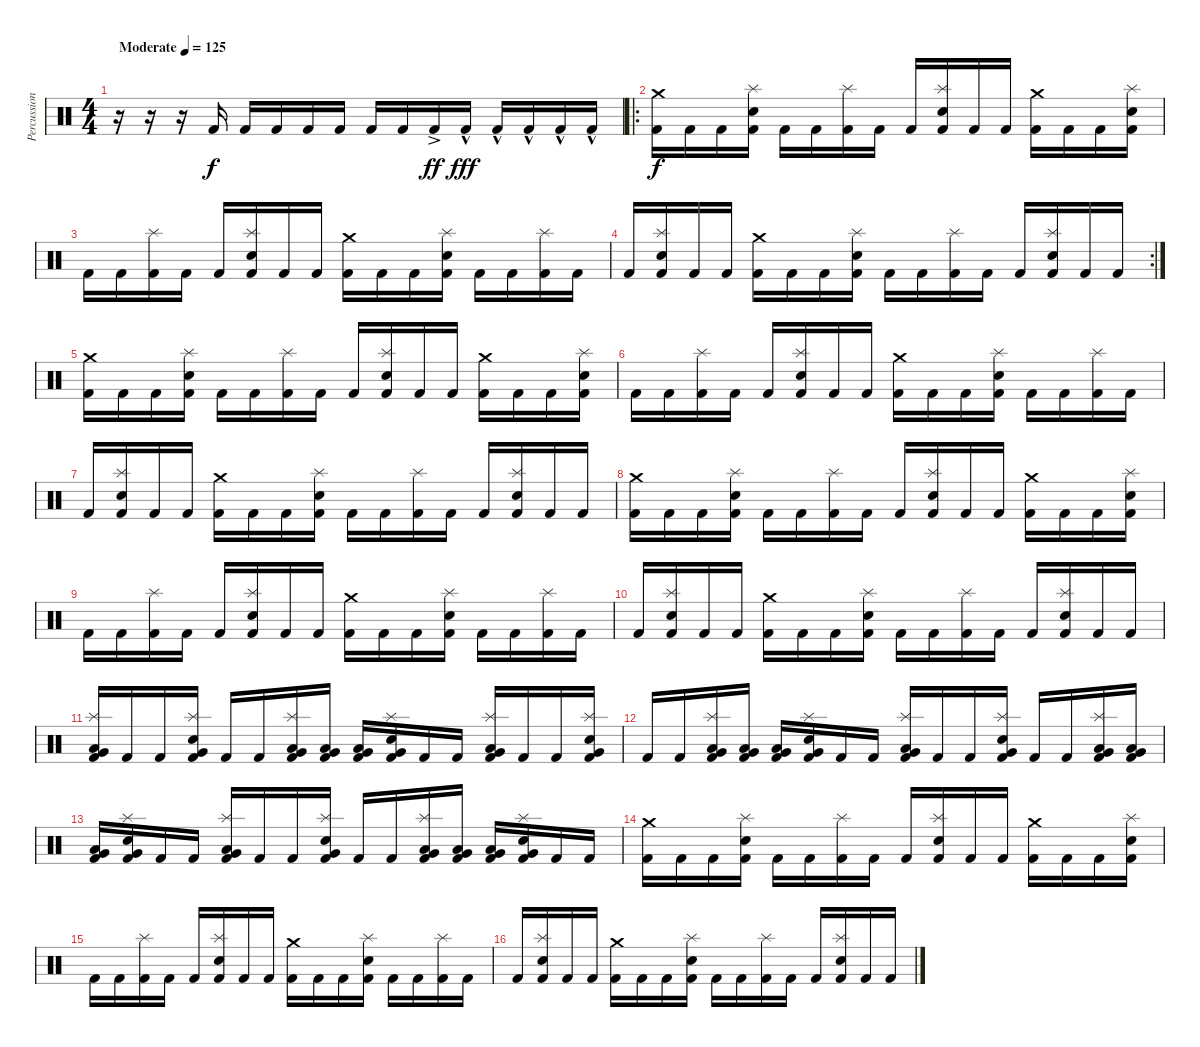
\track ("Percussion" "Percussion") {instrument percussion}
\staff {score}
\articulation defaults
\ts (4 4)
\tempo (125 "Moderate")
\clef neutral
\ks c
r.16{dy f} r.16 r.16 "Kick (hit) 2".16{volume 9} "Kick (hit) 2".16{volume 10} "Kick (hit) 2".16{volume 11} "Kick (hit) 2".16{volume 12} "Kick (hit) 2".16{volume 13} "Kick (hit) 2".16{volume 15} "Kick (hit) 2".16 "Kick (hit) 2"{ac}.16{dy ff} "Kick (hit) 2"{hac}.16{dy fff} "Kick (hit) 2"{hac}.16 "Kick (hit) 2"{hac}.16 "Kick (hit) 2"{hac}.16 "Kick (hit) 2"{hac}.16 |
\ro
("Crash medium (hit)" "Kick (hit) 2").16{dy f} "Kick (hit) 2".16 "Kick (hit) 2".16 ("Splash (hit)" "Electric Snare (hit)" "Kick (hit) 2").16 "Kick (hit) 2".16 "Kick (hit) 2".16 ("Splash (hit)" "Kick (hit) 2").16 "Kick (hit) 2".16 "Kick (hit) 2".16 ("Splash (hit)" "Electric Snare (hit)" "Kick (hit) 2").16 "Kick (hit) 2".16 "Kick (hit) 2".16 ("Crash medium (hit)" "Kick (hit) 2").16 "Kick (hit) 2".16 "Kick (hit) 2".16 ("Splash (hit)" "Electric Snare (hit)" "Kick (hit) 2").16 |
"Kick (hit) 2".16 "Kick (hit) 2".16 ("Splash (hit)" "Kick (hit) 2").16 "Kick (hit) 2".16 "Kick (hit) 2".16 ("Splash (hit)" "Electric Snare (hit)" "Kick (hit) 2").16 "Kick (hit) 2".16 "Kick (hit) 2".16 ("Crash medium (hit)" "Kick (hit) 2").16 "Kick (hit) 2".16 "Kick (hit) 2".16 ("Splash (hit)" "Electric Snare (hit)" "Kick (hit) 2").16 "Kick (hit) 2".16 "Kick (hit) 2".16 ("Splash (hit)" "Kick (hit) 2").16 "Kick (hit) 2".16 |
\rc 2 "Kick (hit) 2".16
("Splash (hit)" "Electric Snare (hit)" "Kick (hit) 2").16 "Kick (hit) 2".16 "Kick (hit) 2".16 ("Crash medium (hit)" "Kick (hit) 2").16 "Kick (hit) 2".16 "Kick (hit) 2".16 ("Splash (hit)" "Electric Snare (hit)" "Kick (hit) 2").16 "Kick (hit) 2".16 "Kick (hit) 2".16 ("Splash (hit)" "Kick (hit) 2").16 "Kick (hit) 2".16 "Kick (hit) 2".16 ("Splash (hit)" "Electric Snare (hit)" "Kick (hit) 2").16 "Kick (hit) 2".16 "Kick (hit) 2".16 |
("Crash medium (hit)" "Kick (hit) 2").16 "Kick (hit) 2".16 "Kick (hit) 2".16 ("Splash (hit)" "Electric Snare (hit)" "Kick (hit) 2").16 "Kick (hit) 2".16 "Kick (hit) 2".16 ("Splash (hit)" "Kick (hit) 2").16 "Kick (hit) 2".16 "Kick (hit) 2".16 ("Splash (hit)" "Electric Snare (hit)" "Kick (hit) 2").16 "Kick (hit) 2".16 "Kick (hit) 2".16 ("Crash medium (hit)" "Kick (hit) 2").16 "Kick (hit) 2".16 "Kick (hit) 2".16 ("Splash (hit)" "Electric Snare (hit)" "Kick (hit) 2").16 |
"Kick (hit) 2".16 "Kick (hit) 2".16 ("Splash (hit)" "Kick (hit) 2").16 "Kick (hit) 2".16 "Kick (hit) 2".16 ("Splash (hit)" "Electric Snare (hit)" "Kick (hit) 2").16 "Kick (hit) 2".16 "Kick (hit) 2".16 ("Crash medium (hit)" "Kick (hit) 2").16 "Kick (hit) 2".16 "Kick (hit) 2".16 ("Splash (hit)" "Electric Snare (hit)" "Kick (hit) 2").16 "Kick (hit) 2".16 "Kick (hit) 2".16 ("Splash (hit)" "Kick (hit) 2").16 "Kick (hit) 2".16 |
"Kick (hit) 2".16 ("Splash (hit)" "Electric Snare (hit)" "Kick (hit) 2").16 "Kick (hit) 2".16 "Kick (hit) 2".16 ("Crash medium (hit)" "Kick (hit) 2").16 "Kick (hit) 2".16 "Kick (hit) 2".16 ("Splash (hit)" "Electric Snare (hit)" "Kick (hit) 2").16 "Kick (hit) 2".16 "Kick (hit) 2".16 ("Splash (hit)" "Kick (hit) 2").16 "Kick (hit) 2".16 "Kick (hit) 2".16 ("Splash (hit)" "Electric Snare (hit)" "Kick (hit) 2").16 "Kick (hit) 2".16 "Kick (hit) 2".16 |
("Crash medium (hit)" "Kick (hit) 2").16 "Kick (hit) 2".16 "Kick (hit) 2".16 ("Splash (hit)" "Electric Snare (hit)" "Kick (hit) 2").16 "Kick (hit) 2".16 "Kick (hit) 2".16 ("Splash (hit)" "Kick (hit) 2").16 "Kick (hit) 2".16 "Kick (hit) 2".16 ("Splash (hit)" "Electric Snare (hit)" "Kick (hit) 2").16 "Kick (hit) 2".16 "Kick (hit) 2".16 ("Crash medium (hit)" "Kick (hit) 2").16 "Kick (hit) 2".16 "Kick (hit) 2".16 ("Splash (hit)" "Electric Snare (hit)" "Kick (hit) 2").16 |
"Kick (hit) 2".16 "Kick (hit) 2".16 ("Splash (hit)" "Kick (hit) 2").16 "Kick (hit) 2".16 "Kick (hit) 2".16 ("Splash (hit)" "Electric Snare (hit)" "Kick (hit) 2").16 "Kick (hit) 2".16 "Kick (hit) 2".16 ("Crash medium (hit)" "Kick (hit) 2").16 "Kick (hit) 2".16 "Kick (hit) 2".16 ("Splash (hit)" "Electric Snare (hit)" "Kick (hit) 2").16 "Kick (hit) 2".16 "Kick (hit) 2".16 ("Splash (hit)" "Kick (hit) 2").16 "Kick (hit) 2".16 |
"Kick (hit) 2".16 ("Splash (hit)" "Electric Snare (hit)" "Kick (hit) 2").16 "Kick (hit) 2".16 "Kick (hit) 2".16 ("Crash medium (hit)" "Kick (hit) 2").16 "Kick (hit) 2".16 "Kick (hit) 2".16 ("Splash (hit)" "Electric Snare (hit)" "Kick (hit) 2").16 "Kick (hit) 2".16 "Kick (hit) 2".16 ("Splash (hit)" "Kick (hit) 2").16 "Kick (hit) 2".16 "Kick (hit) 2".16 ("Splash (hit)" "Electric Snare (hit)" "Kick (hit) 2").16 "Kick (hit) 2".16 "Kick (hit) 2".16 |
("Splash (hit)" "Low Tom (hit)" "Very Low Tom (hit)" "Kick (hit) 2").16 "Kick (hit) 2".16 "Kick (hit) 2".16 ("Splash (hit)" "Electric Snare (hit)" "Very Low Tom (hit)" "Kick (hit) 2").16 "Kick (hit) 2".16 "Kick (hit) 2".16 ("Splash (hit)" "Low Tom (hit)" "Very Low Tom (hit)" "Kick (hit) 2").16 ("Low Tom (hit)" "Very Low Tom (hit)" "Kick (hit) 2").16 ("Low Tom (hit)" "Very Low Tom (hit)" "Kick (hit) 2").16 ("Splash (hit)" "Electric Snare (hit)" "Very Low Tom (hit)" "Kick (hit) 2").16 "Kick (hit) 2".16 "Kick (hit) 2".16 ("Splash (hit)" "Low Tom (hit)" "Very Low Tom (hit)" "Kick (hit) 2").16 "Kick (hit) 2".16 "Kick (hit) 2".16 ("Splash (hit)" "Electric Snare (hit)" "Very Low Tom (hit)" "Kick (hit) 2").16 |
"Kick (hit) 2".16 "Kick (hit) 2".16 ("Splash (hit)" "Low Tom (hit)" "Very Low Tom (hit)" "Kick (hit) 2").16 ("Low Tom (hit)" "Very Low Tom (hit)" "Kick (hit) 2").16 ("Low Tom (hit)" "Very Low Tom (hit)" "Kick (hit) 2").16 ("Splash (hit)" "Electric Snare (hit)" "Very Low Tom (hit)" "Kick (hit) 2").16 "Kick (hit) 2".16 "Kick (hit) 2".16 ("Splash (hit)" "Low Tom (hit)" "Very Low Tom (hit)" "Kick (hit) 2").16 "Kick (hit) 2".16 "Kick (hit) 2".16 ("Splash (hit)" "Electric Snare (hit)" "Very Low Tom (hit)" "Kick (hit) 2").16 "Kick (hit) 2".16 "Kick (hit) 2".16 ("Splash (hit)" "Low Tom (hit)" "Very Low Tom (hit)" "Kick (hit) 2").16 ("Low Tom (hit)" "Very Low Tom (hit)" "Kick (hit) 2").16 |
("Low Tom (hit)" "Very Low Tom (hit)" "Kick (hit) 2").16 ("Splash (hit)" "Electric Snare (hit)" "Very Low Tom (hit)" "Kick (hit) 2").16 "Kick (hit) 2".16 "Kick (hit) 2".16 ("Splash (hit)" "Low Tom (hit)" "Very Low Tom (hit)" "Kick (hit) 2").16 "Kick (hit) 2".16 "Kick (hit) 2".16 ("Splash (hit)" "Electric Snare (hit)" "Very Low Tom (hit)" "Kick (hit) 2").16 "Kick (hit) 2".16 "Kick (hit) 2".16 ("Splash (hit)" "Low Tom (hit)" "Very Low Tom (hit)" "Kick (hit) 2").16 ("Low Tom (hit)" "Very Low Tom (hit)" "Kick (hit) 2").16 ("Low Tom (hit)" "Very Low Tom (hit)" "Kick (hit) 2").16 ("Splash (hit)" "Electric Snare (hit)" "Very Low Tom (hit)" "Kick (hit) 2").16 "Kick (hit) 2".16 "Kick (hit) 2".16 |
("Crash medium (hit)" "Kick (hit) 2").16 "Kick (hit) 2".16 "Kick (hit) 2".16 ("Splash (hit)" "Electric Snare (hit)" "Kick (hit) 2").16 "Kick (hit) 2".16 "Kick (hit) 2".16 ("Splash (hit)" "Kick (hit) 2").16 "Kick (hit) 2".16 "Kick (hit) 2".16 ("Splash (hit)" "Electric Snare (hit)" "Kick (hit) 2").16 "Kick (hit) 2".16 "Kick (hit) 2".16 ("Crash medium (hit)" "Kick (hit) 2").16 "Kick (hit) 2".16 "Kick (hit) 2".16 ("Splash (hit)" "Electric Snare (hit)" "Kick (hit) 2").16 |
"Kick (hit) 2".16 "Kick (hit) 2".16 ("Splash (hit)" "Kick (hit) 2").16 "Kick (hit) 2".16 "Kick (hit) 2".16 ("Splash (hit)" "Electric Snare (hit)" "Kick (hit) 2").16 "Kick (hit) 2".16 "Kick (hit) 2".16 ("Crash medium (hit)" "Kick (hit) 2").16 "Kick (hit) 2".16 "Kick (hit) 2".16 ("Splash (hit)" "Electric Snare (hit)" "Kick (hit) 2").16 "Kick (hit) 2".16 "Kick (hit) 2".16 ("Splash (hit)" "Kick (hit) 2").16 "Kick (hit) 2".16 |
"Kick (hit) 2".16 ("Splash (hit)" "Electric Snare (hit)" "Kick (hit) 2").16 "Kick (hit) 2".16 "Kick (hit) 2".16 ("Crash medium (hit)" "Kick (hit) 2").16 "Kick (hit) 2".16 "Kick (hit) 2".16 ("Splash (hit)" "Electric Snare (hit)" "Kick (hit) 2").16 "Kick (hit) 2".16 "Kick (hit) 2".16 ("Splash (hit)" "Kick (hit) 2").16 "Kick (hit) 2".16 "Kick (hit) 2".16 ("Splash (hit)" "Electric Snare (hit)" "Kick (hit) 2").16 "Kick (hit) 2".16 "Kick (hit) 2".16
